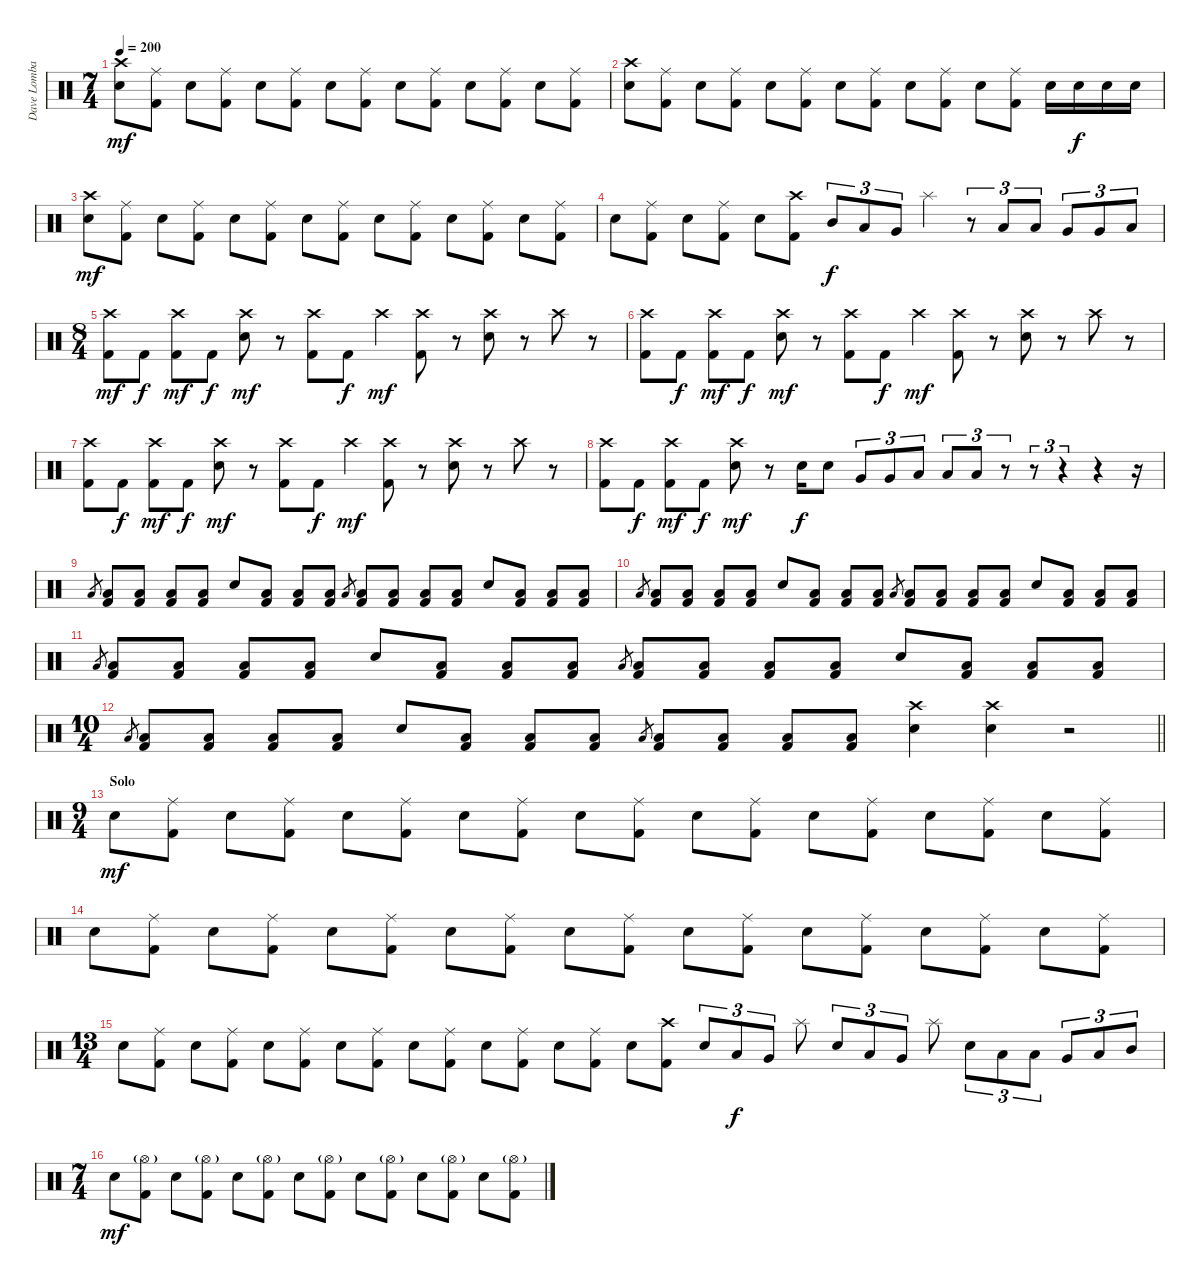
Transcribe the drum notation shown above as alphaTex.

\track ("Dave Lombardo" "Dave Lomba") {instrument percussion}
\staff {score}
\articulation defaults
\ts (7 4)
\tempo 200
\clef neutral
\ks c
("Crash high (hit)" "Snare (hit) 2").8{dy mf} ("Ride (middle)" "Kick (hit) 2").8 "Snare (hit) 2".8 ("Ride (middle)" "Kick (hit) 2").8 "Snare (hit) 2".8 ("Ride (middle)" "Kick (hit) 2").8 "Snare (hit) 2".8 ("Ride (middle)" "Kick (hit) 2").8 "Snare (hit) 2".8 ("Ride (middle)" "Kick (hit) 2").8 "Snare (hit) 2".8 ("Ride (middle)" "Kick (hit) 2").8 "Snare (hit) 2".8 ("Ride (middle)" "Kick (hit) 2").8 |
("Crash high (hit)" "Snare (hit) 2").8 ("Ride (middle)" "Kick (hit) 2").8 "Snare (hit) 2".8 ("Ride (middle)" "Kick (hit) 2").8 "Snare (hit) 2".8 ("Ride (middle)" "Kick (hit) 2").8 "Snare (hit) 2".8 ("Ride (middle)" "Kick (hit) 2").8 "Snare (hit) 2".8 ("Ride (middle)" "Kick (hit) 2").8 "Snare (hit) 2".8 ("Ride (middle)" "Kick (hit) 2").8 "Snare (hit) 2".16 "Snare (hit) 2".16{dy f} "Snare (hit) 2".16 "Snare (hit) 2".16 |
("Crash high (hit)" "Snare (hit) 2").8{dy mf} ("Ride (middle)" "Kick (hit) 2").8 "Snare (hit) 2".8 ("Ride (middle)" "Kick (hit) 2").8 "Snare (hit) 2".8 ("Ride (middle)" "Kick (hit) 2").8 "Snare (hit) 2".8 ("Ride (middle)" "Kick (hit) 2").8 "Snare (hit) 2".8 ("Ride (middle)" "Kick (hit) 2").8 "Snare (hit) 2".8 ("Ride (middle)" "Kick (hit) 2").8 "Snare (hit) 2".8 ("Ride (middle)" "Kick (hit) 2").8 |
"Snare (hit) 2".8 ("Ride (middle)" "Kick (hit) 2").8 "Snare (hit) 2".8 ("Ride (middle)" "Kick (hit) 2").8 "Snare (hit) 2".8 ("Crash high (hit)" "Kick (hit) 2").8 "Mid Tom (hit)".8{tu (3 2) dy f} "Low Tom (hit)".8{tu (3 2)} "Very Low Tom (hit)".8{tu (3 2)} "Splash (hit)".4 r.8{tu (3 2)} "Low Tom (hit)".8{tu (3 2)} "Low Tom (hit)".8{tu (3 2)} "Very Low Tom (hit)".8{tu (3 2)} "Very Low Tom (hit)".8{tu (3 2)} "Low Floor Tom (hit)".8{tu (3 2)} |
\ts (8 4)
("Crash high (hit)" "Kick (hit) 2").8{dy mf} "Kick (hit) 2".8{dy f} ("Crash high (hit)" "Kick (hit) 2").8{dy mf} "Kick (hit) 2".8{dy f} ("Crash high (hit)" "Snare (hit) 2").8{dy mf} r.8 ("Crash high (hit)" "Kick (hit) 2").8 "Kick (hit) 2".8{dy f} "Crash high (hit)".4{dy mf} ("Crash high (hit)" "Kick (hit) 2").8 r.8 ("Crash high (hit)" "Snare (hit) 2").8 r.8 "Crash high (hit)".8 r.8 |
("Crash high (hit)" "Kick (hit) 2").8 "Kick (hit) 2".8{dy f} ("Crash high (hit)" "Kick (hit) 2").8{dy mf} "Kick (hit) 2".8{dy f} ("Crash high (hit)" "Snare (hit) 2").8{dy mf} r.8 ("Crash high (hit)" "Kick (hit) 2").8 "Kick (hit) 2".8{dy f} "Crash high (hit)".4{dy mf} ("Crash high (hit)" "Kick (hit) 2").8 r.8 ("Crash high (hit)" "Snare (hit) 2").8 r.8 "Crash high (hit)".8 r.8 |
("Crash high (hit)" "Kick (hit) 2").8 "Kick (hit) 2".8{dy f} ("Crash high (hit)" "Kick (hit) 2").8{dy mf} "Kick (hit) 2".8{dy f} ("Crash high (hit)" "Snare (hit) 2").8{dy mf} r.8 ("Crash high (hit)" "Kick (hit) 2").8 "Kick (hit) 2".8{dy f} "Crash high (hit)".4{dy mf} ("Crash high (hit)" "Kick (hit) 2").8 r.8 ("Crash high (hit)" "Snare (hit) 2").8 r.8 "Crash high (hit)".8 r.8 |
("Crash high (hit)" "Kick (hit) 2").8 "Kick (hit) 2".8{dy f} ("Crash high (hit)" "Kick (hit) 2").8{dy mf} "Kick (hit) 2".8{dy f} ("Crash high (hit)" "Snare (hit) 2").8{dy mf} r.8 "Snare (hit) 2".16{dy f} "Snare (hit) 2".8 "Very Low Tom (hit)".8{tu (3 2)} "Very Low Tom (hit)".8{tu (3 2)} "Low Floor Tom (hit)".8{tu (3 2)} "Low Floor Tom (hit)".8{tu (3 2)} "Low Floor Tom (hit)".8{tu (3 2)} r.8{tu (3 2)} r.8{tu (3 2)} r.4{tu (3 2)} r.4 r.16 |
"Low Floor Tom (hit)".8{gr} ("Low Floor Tom (hit)" "Kick (hit) 2").8 ("Low Floor Tom (hit)" "Kick (hit) 2").8 ("Low Floor Tom (hit)" "Kick (hit) 2").8 ("Low Floor Tom (hit)" "Kick (hit) 2").8 "Electric Snare (hit)".8 ("Low Floor Tom (hit)" "Kick (hit) 2").8 ("Low Floor Tom (hit)" "Kick (hit) 2").8 ("Low Floor Tom (hit)" "Kick (hit) 2").8 "Low Floor Tom (hit)".8{gr} ("Low Floor Tom (hit)" "Kick (hit) 2").8 ("Low Floor Tom (hit)" "Kick (hit) 2").8 ("Low Floor Tom (hit)" "Kick (hit) 2").8 ("Low Floor Tom (hit)" "Kick (hit) 2").8 "Electric Snare (hit)".8 ("Low Floor Tom (hit)" "Kick (hit) 2").8 ("Low Floor Tom (hit)" "Kick (hit) 2").8 ("Low Floor Tom (hit)" "Kick (hit) 2").8 |
"Low Floor Tom (hit)".8{gr} ("Low Floor Tom (hit)" "Kick (hit) 2").8 ("Low Floor Tom (hit)" "Kick (hit) 2").8 ("Low Floor Tom (hit)" "Kick (hit) 2").8 ("Low Floor Tom (hit)" "Kick (hit) 2").8 "Electric Snare (hit)".8 ("Low Floor Tom (hit)" "Kick (hit) 2").8 ("Low Floor Tom (hit)" "Kick (hit) 2").8 ("Low Floor Tom (hit)" "Kick (hit) 2").8 "Low Floor Tom (hit)".8{gr} ("Low Floor Tom (hit)" "Kick (hit) 2").8 ("Low Floor Tom (hit)" "Kick (hit) 2").8 ("Low Floor Tom (hit)" "Kick (hit) 2").8 ("Low Floor Tom (hit)" "Kick (hit) 2").8 "Electric Snare (hit)".8 ("Low Floor Tom (hit)" "Kick (hit) 2").8 ("Low Floor Tom (hit)" "Kick (hit) 2").8 ("Low Floor Tom (hit)" "Kick (hit) 2").8 |
"Low Floor Tom (hit)".8{gr} ("Low Floor Tom (hit)" "Kick (hit) 2").8 ("Low Floor Tom (hit)" "Kick (hit) 2").8 ("Low Floor Tom (hit)" "Kick (hit) 2").8 ("Low Floor Tom (hit)" "Kick (hit) 2").8 "Electric Snare (hit)".8 ("Low Floor Tom (hit)" "Kick (hit) 2").8 ("Low Floor Tom (hit)" "Kick (hit) 2").8 ("Low Floor Tom (hit)" "Kick (hit) 2").8 "Low Floor Tom (hit)".8{gr} ("Low Floor Tom (hit)" "Kick (hit) 2").8 ("Low Floor Tom (hit)" "Kick (hit) 2").8 ("Low Floor Tom (hit)" "Kick (hit) 2").8 ("Low Floor Tom (hit)" "Kick (hit) 2").8 "Electric Snare (hit)".8 ("Low Floor Tom (hit)" "Kick (hit) 2").8 ("Low Floor Tom (hit)" "Kick (hit) 2").8 ("Low Floor Tom (hit)" "Kick (hit) 2").8 |
\ts (10 4)
\barLineRight lightlight "Low Floor Tom (hit)".8{gr}
("Low Floor Tom (hit)" "Kick (hit) 2").8 ("Low Floor Tom (hit)" "Kick (hit) 2").8 ("Low Floor Tom (hit)" "Kick (hit) 2").8 ("Low Floor Tom (hit)" "Kick (hit) 2").8 "Electric Snare (hit)".8 ("Low Floor Tom (hit)" "Kick (hit) 2").8 ("Low Floor Tom (hit)" "Kick (hit) 2").8 ("Low Floor Tom (hit)" "Kick (hit) 2").8 "Low Floor Tom (hit)".8{gr} ("Low Floor Tom (hit)" "Kick (hit) 2").8 ("Low Floor Tom (hit)" "Kick (hit) 2").8 ("Low Floor Tom (hit)" "Kick (hit) 2").8 ("Low Floor Tom (hit)" "Kick (hit) 2").8 ("Crash high (hit)" "Electric Snare (hit)").4 ("Crash high (hit)" "Electric Snare (hit)").4 r.2 |
\ts (9 4)
\section ("" "Solo")
"Snare (hit) 2".8{dy mf} ("Ride (middle)" "Kick (hit) 2").8 "Snare (hit) 2".8 ("Ride (middle)" "Kick (hit) 2").8 "Snare (hit) 2".8 ("Ride (middle)" "Kick (hit) 2").8 "Snare (hit) 2".8 ("Ride (middle)" "Kick (hit) 2").8 "Snare (hit) 2".8 ("Ride (middle)" "Kick (hit) 2").8 "Snare (hit) 2".8 ("Ride (middle)" "Kick (hit) 2").8 "Snare (hit) 2".8 ("Ride (middle)" "Kick (hit) 2").8 "Snare (hit) 2".8 ("Ride (middle)" "Kick (hit) 2").8 "Snare (hit) 2".8 ("Ride (middle)" "Kick (hit) 2").8 |
"Snare (hit) 2".8 ("Ride (middle)" "Kick (hit) 2").8 "Snare (hit) 2".8 ("Ride (middle)" "Kick (hit) 2").8 "Snare (hit) 2".8 ("Ride (middle)" "Kick (hit) 2").8 "Snare (hit) 2".8 ("Ride (middle)" "Kick (hit) 2").8 "Snare (hit) 2".8 ("Ride (middle)" "Kick (hit) 2").8 "Snare (hit) 2".8 ("Ride (middle)" "Kick (hit) 2").8 "Snare (hit) 2".8 ("Ride (middle)" "Kick (hit) 2").8 "Snare (hit) 2".8 ("Ride (middle)" "Kick (hit) 2").8 "Snare (hit) 2".8 ("Ride (middle)" "Kick (hit) 2").8 |
\ts (13 4)
"Snare (hit) 2".8 ("Ride (middle)" "Kick (hit) 2").8 "Snare (hit) 2".8 ("Ride (middle)" "Kick (hit) 2").8 "Snare (hit) 2".8 ("Ride (middle)" "Kick (hit) 2").8 "Snare (hit) 2".8 ("Ride (middle)" "Kick (hit) 2").8 "Snare (hit) 2".8 ("Ride (middle)" "Kick (hit) 2").8 "Snare (hit) 2".8 ("Ride (middle)" "Kick (hit) 2").8 "Snare (hit) 2".8 ("Ride (middle)" "Kick (hit) 2").8 "Snare (hit) 2".8 ("Crash high (hit)" "Kick (hit) 2").8 "Snare (hit) 2".8{tu (3 2)} "Low Floor Tom (hit)".8{tu (3 2) dy f} "Very Low Tom (hit)".8{tu (3 2)} "Splash (hit)".8 "Snare (hit) 2".8{tu (3 2)} "Low Floor Tom (hit)".8{tu (3 2)} "Very Low Tom (hit)".8{tu (3 2)} "Splash (hit)".8 "Snare (hit) 2".8{tu (3 2)} "Low Floor Tom (hit)".8{tu (3 2)} "Low Floor Tom (hit)".8{tu (3 2)} "Very Low Tom (hit)".8{tu (3 2)} "Low Tom (hit)".8{tu (3 2)} "Mid Tom (hit)".8{tu (3 2)} |
\ts (7 4)
"Snare (hit) 2".8{dy mf} ("Hi-Hat (open)"{g} "Kick (hit) 2").8 "Snare (hit) 2".8 ("Hi-Hat (open)"{g} "Kick (hit) 2").8 "Snare (hit) 2".8 ("Hi-Hat (open)"{g} "Kick (hit) 2").8 "Snare (hit) 2".8 ("Hi-Hat (open)"{g} "Kick (hit) 2").8 "Snare (hit) 2".8 ("Hi-Hat (open)"{g} "Kick (hit) 2").8 "Snare (hit) 2".8 ("Hi-Hat (open)"{g} "Kick (hit) 2").8 "Snare (hit) 2".8 ("Hi-Hat (open)"{g} "Kick (hit) 2").8
